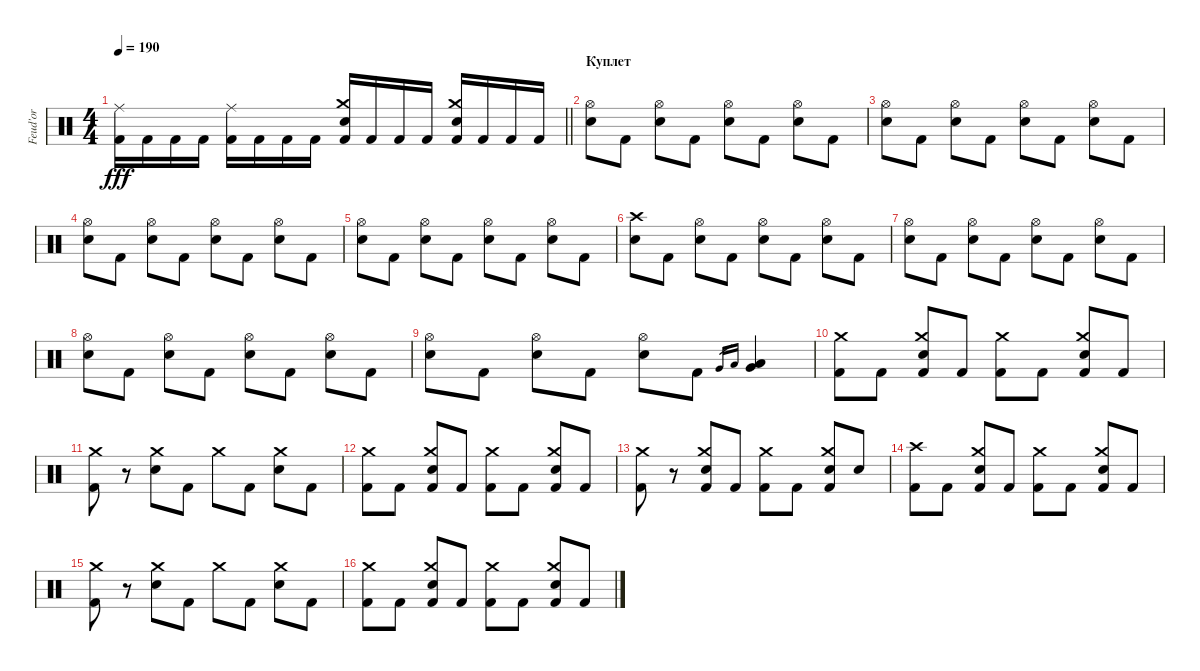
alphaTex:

\track ("Feud'or" "Feud'or") {instrument percussion}
\staff {score}
\articulation defaults
\ts (4 4)
\tempo 190
\clef neutral
\barLineRight lightlight
\ks c
("Ride (middle)" "Kick (hit) 2").16{dy fff} "Kick (hit) 2".16 "Kick (hit) 2".16 "Kick (hit) 2".16 ("Ride (middle)" "Kick (hit) 2").16 "Kick (hit) 2".16 "Kick (hit) 2".16 "Kick (hit) 2".16 ("Crash medium (hit)" "Snare (hit) 2" "Kick (hit) 2").16 "Kick (hit) 2".16 "Kick (hit) 2".16 "Kick (hit) 2".16 ("Crash medium (hit)" "Snare (hit) 2" "Kick (hit) 2").16 "Kick (hit) 2".16 "Kick (hit) 2".16 "Kick (hit) 2".16 |
\section ("" "Куплет")
("Hi-Hat (open)" "Snare (hit) 2").8 "Kick (hit) 2".8 ("Hi-Hat (open)" "Snare (hit) 2").8 "Kick (hit) 2".8 ("Hi-Hat (open)" "Snare (hit) 2").8 "Kick (hit) 2".8 ("Hi-Hat (open)" "Snare (hit) 2").8 "Kick (hit) 2".8 |
("Hi-Hat (open)" "Snare (hit) 2").8 "Kick (hit) 2".8 ("Hi-Hat (open)" "Snare (hit) 2").8 "Kick (hit) 2".8 ("Hi-Hat (open)" "Snare (hit) 2").8 "Kick (hit) 2".8 ("Hi-Hat (open)" "Snare (hit) 2").8 "Kick (hit) 2".8 |
("Hi-Hat (open)" "Snare (hit) 2").8 "Kick (hit) 2".8 ("Hi-Hat (open)" "Snare (hit) 2").8 "Kick (hit) 2".8 ("Hi-Hat (open)" "Snare (hit) 2").8 "Kick (hit) 2".8 ("Hi-Hat (open)" "Snare (hit) 2").8 "Kick (hit) 2".8 |
("Hi-Hat (open)" "Snare (hit) 2").8 "Kick (hit) 2".8 ("Hi-Hat (open)" "Snare (hit) 2").8 "Kick (hit) 2".8 ("Hi-Hat (open)" "Snare (hit) 2").8 "Kick (hit) 2".8 ("Hi-Hat (open)" "Snare (hit) 2").8 "Kick (hit) 2".8 |
("Crash high (hit)" "Snare (hit) 2").8 "Kick (hit) 2".8 ("Hi-Hat (open)" "Snare (hit) 2").8 "Kick (hit) 2".8 ("Hi-Hat (open)" "Snare (hit) 2").8 "Kick (hit) 2".8 ("Hi-Hat (open)" "Snare (hit) 2").8 "Kick (hit) 2".8 |
("Hi-Hat (open)" "Snare (hit) 2").8 "Kick (hit) 2".8 ("Hi-Hat (open)" "Snare (hit) 2").8 "Kick (hit) 2".8 ("Hi-Hat (open)" "Snare (hit) 2").8 "Kick (hit) 2".8 ("Hi-Hat (open)" "Snare (hit) 2").8 "Kick (hit) 2".8 |
("Hi-Hat (open)" "Snare (hit) 2").8 "Kick (hit) 2".8 ("Hi-Hat (open)" "Snare (hit) 2").8 "Kick (hit) 2".8 ("Hi-Hat (open)" "Snare (hit) 2").8 "Kick (hit) 2".8 ("Hi-Hat (open)" "Snare (hit) 2").8 "Kick (hit) 2".8 |
("Hi-Hat (open)" "Snare (hit) 2").8 "Kick (hit) 2".8 ("Hi-Hat (open)" "Snare (hit) 2").8 "Kick (hit) 2".8 ("Hi-Hat (open)" "Snare (hit) 2").8 "Kick (hit) 2".8 "Very Low Tom (hit)".16{gr} "Low Tom (hit)".16{gr} ("Very Low Tom (hit)" "Low Tom (hit)").4 |
("Crash medium (hit)" "Kick (hit) 2").8 "Kick (hit) 2".8 ("Crash medium (hit)" "Snare (hit) 2" "Kick (hit) 2").8 "Kick (hit) 2".8 ("Crash medium (hit)" "Kick (hit) 2").8 "Kick (hit) 2".8 ("Crash medium (hit)" "Snare (hit) 2" "Kick (hit) 2").8 "Kick (hit) 2".8 |
("Crash medium (hit)" "Kick (hit) 2").8 r.8 ("Crash medium (hit)" "Snare (hit) 2").8 "Kick (hit) 2".8 "Crash medium (hit)".8 "Kick (hit) 2".8 ("Crash medium (hit)" "Snare (hit) 2").8 "Kick (hit) 2".8 |
("Crash medium (hit)" "Kick (hit) 2").8 "Kick (hit) 2".8 ("Crash medium (hit)" "Snare (hit) 2" "Kick (hit) 2").8 "Kick (hit) 2".8 ("Crash medium (hit)" "Kick (hit) 2").8 "Kick (hit) 2".8 ("Crash medium (hit)" "Snare (hit) 2" "Kick (hit) 2").8 "Kick (hit) 2".8 |
("Crash medium (hit)" "Kick (hit) 2").8 r.8 ("Crash medium (hit)" "Snare (hit) 2" "Kick (hit) 2").8 "Kick (hit) 2".8 ("Crash medium (hit)" "Kick (hit) 2").8 "Kick (hit) 2".8 ("Crash medium (hit)" "Snare (hit) 2" "Kick (hit) 2").8 "Snare (hit) 2".8 |
("Crash high (hit)" "Kick (hit) 2").8 "Kick (hit) 2".8 ("Crash medium (hit)" "Snare (hit) 2" "Kick (hit) 2").8 "Kick (hit) 2".8 ("Crash medium (hit)" "Kick (hit) 2").8 "Kick (hit) 2".8 ("Crash medium (hit)" "Snare (hit) 2" "Kick (hit) 2").8 "Kick (hit) 2".8 |
("Crash medium (hit)" "Kick (hit) 2").8 r.8 ("Crash medium (hit)" "Snare (hit) 2").8 "Kick (hit) 2".8 "Crash medium (hit)".8 "Kick (hit) 2".8 ("Crash medium (hit)" "Snare (hit) 2").8 "Kick (hit) 2".8 |
("Crash medium (hit)" "Kick (hit) 2").8 "Kick (hit) 2".8 ("Crash medium (hit)" "Snare (hit) 2" "Kick (hit) 2").8 "Kick (hit) 2".8 ("Crash medium (hit)" "Kick (hit) 2").8 "Kick (hit) 2".8 ("Crash medium (hit)" "Snare (hit) 2" "Kick (hit) 2").8 "Kick (hit) 2".8
